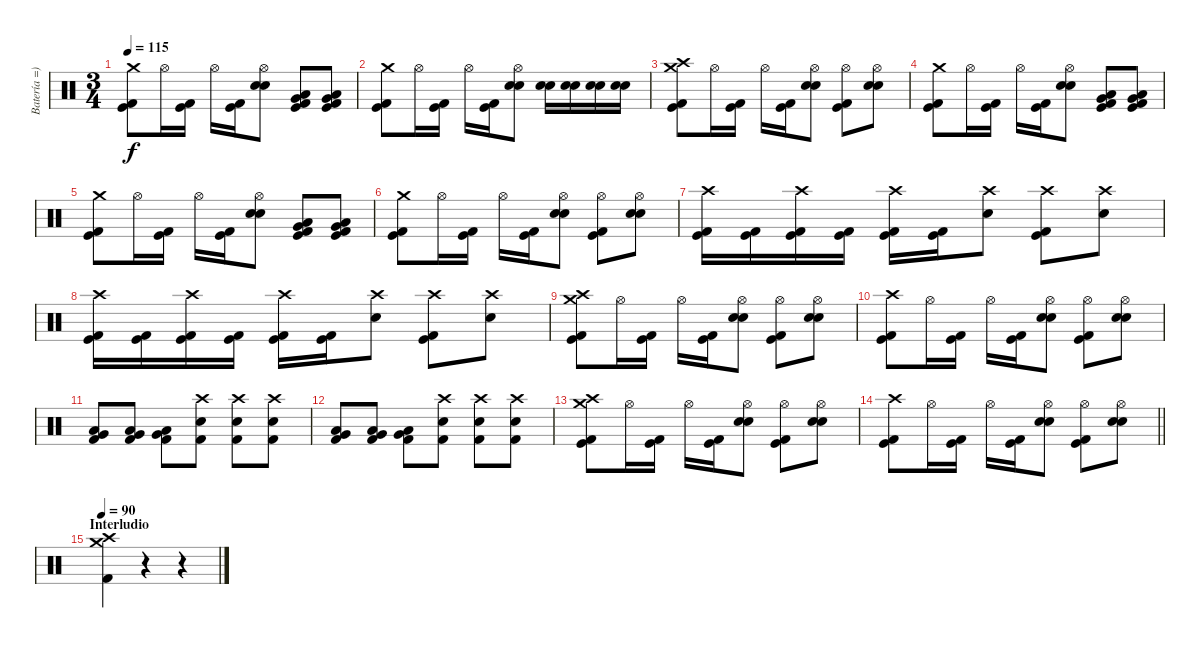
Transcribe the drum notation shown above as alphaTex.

\track ("Batería =)" "Batería =)") {instrument percussion}
\staff {score}
\articulation defaults
\ts (3 4)
\tempo 115
\clef neutral
\ks c
("Crash medium (hit)" "Kick (hit)" "Kick (hit) 2").8{dy f} "Hi-Hat (open)".16 ("Kick (hit)" "Kick (hit) 2").16 "Hi-Hat (open)".16 ("Kick (hit)" "Kick (hit) 2").16 ("Hi-Hat (open)" "Snare (hit) 2" "Electric Snare (hit)").8 ("Low Floor Tom (hit)" "Very Low Tom (hit)" "Kick (hit)" "Kick (hit) 2").8 ("Low Floor Tom (hit)" "Very Low Tom (hit)" "Kick (hit)" "Kick (hit) 2").8 |
("Crash medium (hit)" "Kick (hit)" "Kick (hit) 2").8 "Hi-Hat (open)".16 ("Kick (hit)" "Kick (hit) 2").16 "Hi-Hat (open)".16 ("Kick (hit)" "Kick (hit) 2").16 ("Hi-Hat (open)" "Snare (hit) 2" "Electric Snare (hit)").8 ("Snare (hit) 2" "Electric Snare (hit)").16 ("Snare (hit) 2" "Electric Snare (hit)").16 ("Snare (hit) 2" "Electric Snare (hit)").16 ("Snare (hit) 2" "Electric Snare (hit)").16 |
("Crash high (hit)" "Crash medium (hit)" "Kick (hit)" "Kick (hit) 2").8 "Hi-Hat (open)".16 ("Kick (hit)" "Kick (hit) 2").16 "Hi-Hat (open)".16 ("Kick (hit)" "Kick (hit) 2").16 ("Hi-Hat (open)" "Snare (hit) 2" "Electric Snare (hit)").8 ("Hi-Hat (open)" "Kick (hit)" "Kick (hit) 2").8 ("Hi-Hat (open)" "Snare (hit) 2" "Electric Snare (hit)").8 |
("Crash medium (hit)" "Kick (hit)" "Kick (hit) 2").8 "Hi-Hat (open)".16 ("Kick (hit)" "Kick (hit) 2").16 "Hi-Hat (open)".16 ("Kick (hit)" "Kick (hit) 2").16 ("Hi-Hat (open)" "Snare (hit) 2" "Electric Snare (hit)").8 ("Low Floor Tom (hit)" "Very Low Tom (hit)" "Kick (hit)" "Kick (hit) 2").8 ("Low Floor Tom (hit)" "Very Low Tom (hit)" "Kick (hit)" "Kick (hit) 2").8 |
("Crash medium (hit)" "Kick (hit)" "Kick (hit) 2").8 "Hi-Hat (open)".16 ("Kick (hit)" "Kick (hit) 2").16 "Hi-Hat (open)".16 ("Kick (hit)" "Kick (hit) 2").16 ("Hi-Hat (open)" "Snare (hit) 2" "Electric Snare (hit)").8 ("Low Floor Tom (hit)" "Very Low Tom (hit)" "Kick (hit)" "Kick (hit) 2").8 ("Low Floor Tom (hit)" "Very Low Tom (hit)" "Kick (hit)" "Kick (hit) 2").8 |
("Crash medium (hit)" "Kick (hit)" "Kick (hit) 2").8 "Hi-Hat (open)".16 ("Kick (hit)" "Kick (hit) 2").16 "Hi-Hat (open)".16 ("Kick (hit)" "Kick (hit) 2").16 ("Hi-Hat (open)" "Snare (hit) 2" "Electric Snare (hit)").8 ("Hi-Hat (open)" "Kick (hit)" "Kick (hit) 2").8 ("Hi-Hat (open)" "Snare (hit) 2" "Electric Snare (hit)").8 |
("Crash high (hit)" "Kick (hit)" "Kick (hit) 2").16 ("Kick (hit)" "Kick (hit) 2").16 ("Crash high (hit)" "Kick (hit)" "Kick (hit) 2").16 ("Kick (hit)" "Kick (hit) 2").16 ("Crash high (hit)" "Kick (hit)" "Kick (hit) 2").16 ("Kick (hit)" "Kick (hit) 2").16 ("Crash high (hit)" "Electric Snare (hit)").8 ("Crash high (hit)" "Kick (hit)" "Kick (hit) 2").8 ("Crash high (hit)" "Electric Snare (hit)").8 |
("Crash high (hit)" "Kick (hit)" "Kick (hit) 2").16 ("Kick (hit)" "Kick (hit) 2").16 ("Crash high (hit)" "Kick (hit)" "Kick (hit) 2").16 ("Kick (hit)" "Kick (hit) 2").16 ("Crash high (hit)" "Kick (hit)" "Kick (hit) 2").16 ("Kick (hit)" "Kick (hit) 2").16 ("Crash high (hit)" "Electric Snare (hit)").8 ("Crash high (hit)" "Kick (hit)" "Kick (hit) 2").8 ("Crash high (hit)" "Electric Snare (hit)").8 |
("Crash high (hit)" "Crash medium (hit)" "Kick (hit)" "Kick (hit) 2").8 "Hi-Hat (open)".16 ("Kick (hit)" "Kick (hit) 2").16 "Hi-Hat (open)".16 ("Kick (hit)" "Kick (hit) 2").16 ("Hi-Hat (open)" "Snare (hit) 2" "Electric Snare (hit)").8 ("Hi-Hat (open)" "Kick (hit)" "Kick (hit) 2").8 ("Hi-Hat (open)" "Snare (hit) 2" "Electric Snare (hit)").8 |
("Crash high (hit)" "Kick (hit)" "Kick (hit) 2").8 "Hi-Hat (open)".16 ("Kick (hit)" "Kick (hit) 2").16 "Hi-Hat (open)".16 ("Kick (hit)" "Kick (hit) 2").16 ("Hi-Hat (open)" "Snare (hit) 2" "Electric Snare (hit)").8 ("Hi-Hat (open)" "Kick (hit)" "Kick (hit) 2").8 ("Hi-Hat (open)" "Snare (hit) 2" "Electric Snare (hit)").8 |
("Very Low Tom (hit)" "Low Floor Tom (hit)" "Kick (hit) 2").8 ("Very Low Tom (hit)" "Low Floor Tom (hit)" "Kick (hit) 2").8 ("Very Low Tom (hit)" "Low Floor Tom (hit)" "Kick (hit) 2").8 ("Crash high (hit)" "Electric Snare (hit)" "Kick (hit) 2").8 ("Crash high (hit)" "Electric Snare (hit)" "Kick (hit) 2").8 ("Crash high (hit)" "Electric Snare (hit)" "Kick (hit) 2").8 |
("Very Low Tom (hit)" "Low Floor Tom (hit)" "Kick (hit) 2").8 ("Very Low Tom (hit)" "Low Floor Tom (hit)" "Kick (hit) 2").8 ("Very Low Tom (hit)" "Low Floor Tom (hit)" "Kick (hit) 2").8 ("Crash high (hit)" "Electric Snare (hit)" "Kick (hit) 2").8 ("Crash high (hit)" "Electric Snare (hit)" "Kick (hit) 2").8 ("Crash high (hit)" "Electric Snare (hit)" "Kick (hit) 2").8 |
("Crash high (hit)" "Crash medium (hit)" "Kick (hit)" "Kick (hit) 2").8 "Hi-Hat (open)".16 ("Kick (hit)" "Kick (hit) 2").16 "Hi-Hat (open)".16 ("Kick (hit)" "Kick (hit) 2").16 ("Hi-Hat (open)" "Snare (hit) 2" "Electric Snare (hit)").8 ("Hi-Hat (open)" "Kick (hit)" "Kick (hit) 2").8 ("Hi-Hat (open)" "Snare (hit) 2" "Electric Snare (hit)").8 |
\barLineRight lightlight
("Crash high (hit)" "Kick (hit)" "Kick (hit) 2").8 "Hi-Hat (open)".16 ("Kick (hit)" "Kick (hit) 2").16 "Hi-Hat (open)".16 ("Kick (hit)" "Kick (hit) 2").16 ("Hi-Hat (open)" "Snare (hit) 2" "Electric Snare (hit)").8 ("Hi-Hat (open)" "Kick (hit)" "Kick (hit) 2").8 ("Hi-Hat (open)" "Snare (hit) 2" "Electric Snare (hit)").8 |
\section ("" "Interludio ")
\tempo 90
("Crash medium (hit)" "Crash high (hit)" "Kick (hit) 2").4 r.4 r.4
